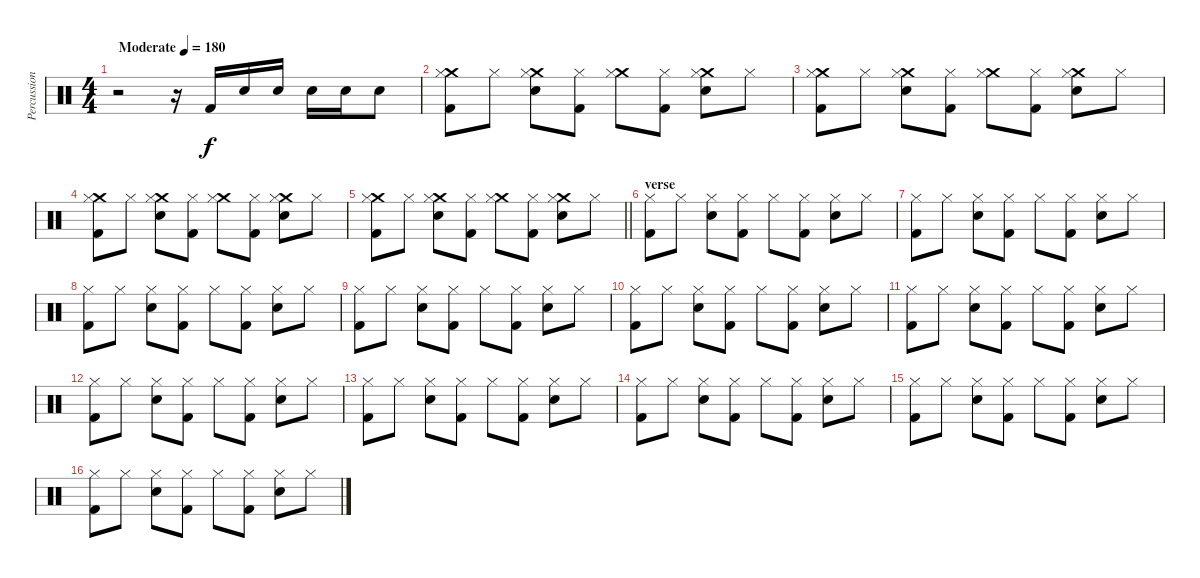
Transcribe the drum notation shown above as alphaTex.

\track ("Percussion" "Percussion") {instrument percussion}
\staff {score}
\articulation defaults
\ts (4 4)
\tempo (180 "Moderate")
\clef neutral
\ks c
r.2{dy f} r.16 "Kick (hit) 2".16 "Snare (hit) 2".16 "Snare (hit) 2".16 "Snare (hit) 2".16 "Snare (hit) 2".16 "Snare (hit) 2".8 |
("Crash medium (hit)" "Hi-Hat (closed)" "Kick (hit) 2").8 "Hi-Hat (closed)".8 ("Crash medium (hit)" "Hi-Hat (closed)" "Snare (hit) 2").8 ("Hi-Hat (closed)" "Kick (hit) 2").8 ("Crash medium (hit)" "Hi-Hat (closed)").8 ("Hi-Hat (closed)" "Kick (hit) 2").8 ("Crash medium (hit)" "Hi-Hat (closed)" "Snare (hit) 2").8 "Hi-Hat (closed)".8 |
("Crash medium (hit)" "Hi-Hat (closed)" "Kick (hit) 2").8 "Hi-Hat (closed)".8 ("Crash medium (hit)" "Hi-Hat (closed)" "Snare (hit) 2").8 ("Hi-Hat (closed)" "Kick (hit) 2").8 ("Crash medium (hit)" "Hi-Hat (closed)").8 ("Hi-Hat (closed)" "Kick (hit) 2").8 ("Crash medium (hit)" "Hi-Hat (closed)" "Snare (hit) 2").8 "Hi-Hat (closed)".8 |
("Crash medium (hit)" "Hi-Hat (closed)" "Kick (hit) 2").8 "Hi-Hat (closed)".8 ("Crash medium (hit)" "Hi-Hat (closed)" "Snare (hit) 2").8 ("Hi-Hat (closed)" "Kick (hit) 2").8 ("Crash medium (hit)" "Hi-Hat (closed)").8 ("Hi-Hat (closed)" "Kick (hit) 2").8 ("Crash medium (hit)" "Hi-Hat (closed)" "Snare (hit) 2").8 "Hi-Hat (closed)".8 |
\barLineRight lightlight
("Crash medium (hit)" "Hi-Hat (closed)" "Kick (hit) 2").8 "Hi-Hat (closed)".8 ("Crash medium (hit)" "Hi-Hat (closed)" "Snare (hit) 2").8 ("Hi-Hat (closed)" "Kick (hit) 2").8 ("Crash medium (hit)" "Hi-Hat (closed)").8 ("Hi-Hat (closed)" "Kick (hit) 2").8 ("Crash medium (hit)" "Hi-Hat (closed)" "Snare (hit) 2").8 "Hi-Hat (closed)".8 |
\section ("" "verse")
("Hi-Hat (closed)" "Kick (hit) 2").8 "Hi-Hat (closed)".8 ("Hi-Hat (closed)" "Snare (hit) 2").8 ("Hi-Hat (closed)" "Kick (hit) 2").8 "Hi-Hat (closed)".8 ("Hi-Hat (closed)" "Kick (hit) 2").8 ("Hi-Hat (closed)" "Snare (hit) 2").8 "Hi-Hat (closed)".8 |
("Hi-Hat (closed)" "Kick (hit) 2").8 "Hi-Hat (closed)".8 ("Hi-Hat (closed)" "Snare (hit) 2").8 ("Hi-Hat (closed)" "Kick (hit) 2").8 "Hi-Hat (closed)".8 ("Hi-Hat (closed)" "Kick (hit) 2").8 ("Hi-Hat (closed)" "Snare (hit) 2").8 "Hi-Hat (closed)".8 |
("Hi-Hat (closed)" "Kick (hit) 2").8 "Hi-Hat (closed)".8 ("Hi-Hat (closed)" "Snare (hit) 2").8 ("Hi-Hat (closed)" "Kick (hit) 2").8 "Hi-Hat (closed)".8 ("Hi-Hat (closed)" "Kick (hit) 2").8 ("Hi-Hat (closed)" "Snare (hit) 2").8 "Hi-Hat (closed)".8 |
("Hi-Hat (closed)" "Kick (hit) 2").8 "Hi-Hat (closed)".8 ("Hi-Hat (closed)" "Snare (hit) 2").8 ("Hi-Hat (closed)" "Kick (hit) 2").8 "Hi-Hat (closed)".8 ("Hi-Hat (closed)" "Kick (hit) 2").8 ("Hi-Hat (closed)" "Snare (hit) 2").8 "Hi-Hat (closed)".8 |
("Hi-Hat (closed)" "Kick (hit) 2").8 "Hi-Hat (closed)".8 ("Hi-Hat (closed)" "Snare (hit) 2").8 ("Hi-Hat (closed)" "Kick (hit) 2").8 "Hi-Hat (closed)".8 ("Hi-Hat (closed)" "Kick (hit) 2").8 ("Hi-Hat (closed)" "Snare (hit) 2").8 "Hi-Hat (closed)".8 |
("Hi-Hat (closed)" "Kick (hit) 2").8 "Hi-Hat (closed)".8 ("Hi-Hat (closed)" "Snare (hit) 2").8 ("Hi-Hat (closed)" "Kick (hit) 2").8 "Hi-Hat (closed)".8 ("Hi-Hat (closed)" "Kick (hit) 2").8 ("Hi-Hat (closed)" "Snare (hit) 2").8 "Hi-Hat (closed)".8 |
("Hi-Hat (closed)" "Kick (hit) 2").8 "Hi-Hat (closed)".8 ("Hi-Hat (closed)" "Snare (hit) 2").8 ("Hi-Hat (closed)" "Kick (hit) 2").8 "Hi-Hat (closed)".8 ("Hi-Hat (closed)" "Kick (hit) 2").8 ("Hi-Hat (closed)" "Snare (hit) 2").8 "Hi-Hat (closed)".8 |
("Hi-Hat (closed)" "Kick (hit) 2").8 "Hi-Hat (closed)".8 ("Hi-Hat (closed)" "Snare (hit) 2").8 ("Hi-Hat (closed)" "Kick (hit) 2").8 "Hi-Hat (closed)".8 ("Hi-Hat (closed)" "Kick (hit) 2").8 ("Hi-Hat (closed)" "Snare (hit) 2").8 "Hi-Hat (closed)".8 |
("Hi-Hat (closed)" "Kick (hit) 2").8 "Hi-Hat (closed)".8 ("Hi-Hat (closed)" "Snare (hit) 2").8 ("Hi-Hat (closed)" "Kick (hit) 2").8 "Hi-Hat (closed)".8 ("Hi-Hat (closed)" "Kick (hit) 2").8 ("Hi-Hat (closed)" "Snare (hit) 2").8 "Hi-Hat (closed)".8 |
("Hi-Hat (closed)" "Kick (hit) 2").8 "Hi-Hat (closed)".8 ("Hi-Hat (closed)" "Snare (hit) 2").8 ("Hi-Hat (closed)" "Kick (hit) 2").8 "Hi-Hat (closed)".8 ("Hi-Hat (closed)" "Kick (hit) 2").8 ("Hi-Hat (closed)" "Snare (hit) 2").8 "Hi-Hat (closed)".8 |
("Hi-Hat (closed)" "Kick (hit) 2").8 "Hi-Hat (closed)".8 ("Hi-Hat (closed)" "Snare (hit) 2").8 ("Hi-Hat (closed)" "Kick (hit) 2").8 "Hi-Hat (closed)".8 ("Hi-Hat (closed)" "Kick (hit) 2").8 ("Hi-Hat (closed)" "Snare (hit) 2").8 "Hi-Hat (closed)".8
